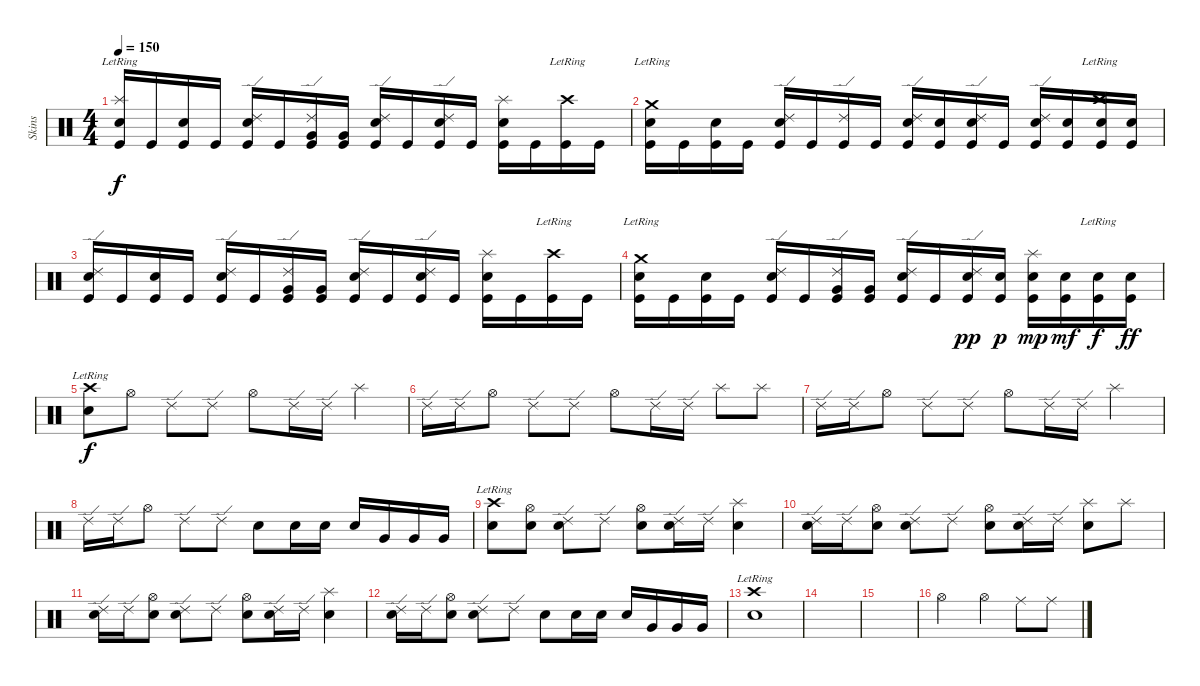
\track ("Skins" "Skins") {instrument percussion}
\staff {score}
\articulation defaults
\ts (4 4)
\tempo 150
\clef neutral
\ks c
("Snare (hit) 2" "Splash (hit)"{lr} "Kick (hit)").16{dy f} "Kick (hit)".16 ("Snare (hit) 2" "Kick (hit)").16 "Kick (hit)".16 ("Snare (hit) 2" "Ride (edge) 2" "Kick (hit)").16 "Kick (hit)".16 ("Very Low Tom (hit)" "Ride (edge) 2" "Kick (hit)").16 ("Very Low Tom (hit)" "Kick (hit)").16 ("Snare (hit) 2" "Ride (edge) 2" "Kick (hit)").16 "Kick (hit)".16 ("Snare (hit) 2" "Ride (edge) 2" "Kick (hit)").16 "Kick (hit)".16 ("Snare (hit) 2" "Splash (hit)" "Kick (hit)").16 "Kick (hit)".16 ("Crash high (hit)"{lr} "Kick (hit)").16 "Kick (hit)".16 |
("Snare (hit) 2" "Crash medium (hit)"{lr} "Kick (hit)").16 "Kick (hit)".16 ("Snare (hit) 2" "Kick (hit)").16 "Kick (hit)".16 ("Snare (hit) 2" "Ride (edge) 2" "Kick (hit)").16 "Kick (hit)".16 ("Ride (edge) 2" "Kick (hit)").16 "Kick (hit)".16 ("Electric Snare (hit)" "Ride (edge) 2" "Kick (hit)").16 ("Snare (hit) 2" "Kick (hit)").16 ("Electric Snare (hit)" "Ride (edge) 2" "Kick (hit)").16 "Kick (hit)".16 ("Electric Snare (hit)" "Ride (edge) 2" "Kick (hit)").16 ("Snare (hit) 2" "Kick (hit)").16 ("Electric Snare (hit)" "Crash high (hit)"{lr} "Kick (hit)").16 ("Electric Snare (hit)" "Kick (hit)").16 |
("Snare (hit) 2" "Ride (edge) 2" "Kick (hit)").16 "Kick (hit)".16 ("Snare (hit) 2" "Kick (hit)").16 "Kick (hit)".16 ("Snare (hit) 2" "Ride (edge) 2" "Kick (hit)").16 "Kick (hit)".16 ("Very Low Tom (hit)" "Ride (edge) 2" "Kick (hit)").16 ("Very Low Tom (hit)" "Kick (hit)").16 ("Snare (hit) 2" "Ride (edge) 2" "Kick (hit)").16 "Kick (hit)".16 ("Snare (hit) 2" "Ride (edge) 2" "Kick (hit)").16 "Kick (hit)".16 ("Snare (hit) 2" "Splash (hit)" "Kick (hit)").16 "Kick (hit)".16 ("Crash high (hit)"{lr} "Kick (hit)").16 "Kick (hit)".16 |
("Snare (hit) 2" "Crash medium (hit)"{lr} "Kick (hit)").16 "Kick (hit)".16 ("Snare (hit) 2" "Kick (hit)").16 "Kick (hit)".16 ("Snare (hit) 2" "Ride (edge) 2" "Kick (hit)").16 "Kick (hit)".16 ("Very Low Tom (hit)" "Ride (edge) 2" "Kick (hit)").16 ("Very Low Tom (hit)" "Kick (hit)").16 ("Snare (hit) 2" "Ride (edge) 2" "Kick (hit)").16 "Kick (hit)".16 ("Electric Snare (hit)" "Ride (edge) 2" "Kick (hit)").16{dy pp} ("Electric Snare (hit)" "Kick (hit)").16{dy p} ("Electric Snare (hit)" "Splash (hit)" "Kick (hit)").16{dy mp} ("Electric Snare (hit)" "Kick (hit)").16{dy mf} ("Electric Snare (hit)"{lr} "Kick (hit)").16{dy f} ("Electric Snare (hit)" "Kick (hit)").16{dy ff} |
("Snare (hit) 2" "Crash high (hit)"{lr}).8{dy f} "Hi-Hat (open)".8 "Ride (edge) 2".8 "Ride (edge) 2".8 "Hi-Hat (open)".8 "Ride (edge) 2".16 "Ride (edge) 2".16 "Splash (hit)".4 |
"Ride (edge) 2".16 "Ride (edge) 2".16 "Hi-Hat (open)".8 "Ride (edge) 2".8 "Ride (edge) 2".8 "Hi-Hat (open)".8 "Ride (edge) 2".16 "Ride (edge) 2".16 "Splash (hit)".8 "Splash (hit)".8 |
"Ride (edge) 2".16 "Ride (edge) 2".16 "Hi-Hat (open)".8 "Ride (edge) 2".8 "Ride (edge) 2".8 "Hi-Hat (open)".8 "Ride (edge) 2".16 "Ride (edge) 2".16 "Splash (hit)".4 |
"Ride (edge) 2".16 "Ride (edge) 2".16 "Hi-Hat (open)".8 "Ride (edge) 2".8 "Ride (edge) 2".8 "Snare (hit) 2".8 "Snare (hit) 2".16 "Snare (hit) 2".16 "Snare (hit) 2".16 "Very Low Tom (hit)".16 "Very Low Tom (hit)".16 "Very Low Tom (hit)".16 |
("Crash high (hit)"{lr} "Electric Snare (hit)").8 ("Hi-Hat (open)" "Snare (hit) 2").8 ("Ride (edge) 2" "Electric Snare (hit)").8 "Ride (edge) 2".8 ("Hi-Hat (open)" "Electric Snare (hit)").8 ("Ride (edge) 2" "Snare (hit) 2").16 "Ride (edge) 2".16 ("Splash (hit)" "Electric Snare (hit)").4 |
("Ride (edge) 2" "Electric Snare (hit)").16 "Ride (edge) 2".16 ("Hi-Hat (open)" "Snare (hit) 2").8 ("Ride (edge) 2" "Electric Snare (hit)").8 "Ride (edge) 2".8 ("Hi-Hat (open)" "Electric Snare (hit)").8 ("Ride (edge) 2" "Snare (hit) 2").16 "Ride (edge) 2".16 ("Splash (hit)" "Electric Snare (hit)").8 "Splash (hit)".8 |
("Ride (edge) 2" "Electric Snare (hit)").16 "Ride (edge) 2".16 ("Hi-Hat (open)" "Snare (hit) 2").8 ("Ride (edge) 2" "Electric Snare (hit)").8 "Ride (edge) 2".8 ("Hi-Hat (open)" "Electric Snare (hit)").8 ("Ride (edge) 2" "Snare (hit) 2").16 "Ride (edge) 2".16 ("Splash (hit)" "Electric Snare (hit)").4 |
("Ride (edge) 2" "Electric Snare (hit)").16 "Ride (edge) 2".16 ("Hi-Hat (open)" "Snare (hit) 2").8 ("Ride (edge) 2" "Electric Snare (hit)").8 "Ride (edge) 2".8 "Snare (hit) 2".8 "Snare (hit) 2".16 "Snare (hit) 2".16 "Snare (hit) 2".16 "Very Low Tom (hit)".16 "Very Low Tom (hit)".16 "Very Low Tom (hit)".16 |
("Electric Snare (hit)" "Crash high (hit)"{lr}).1 |
|
|
"Hi-Hat (open)".2 "Hi-Hat (open)".4 "Ride (middle)".8 "Ride (middle)".8
